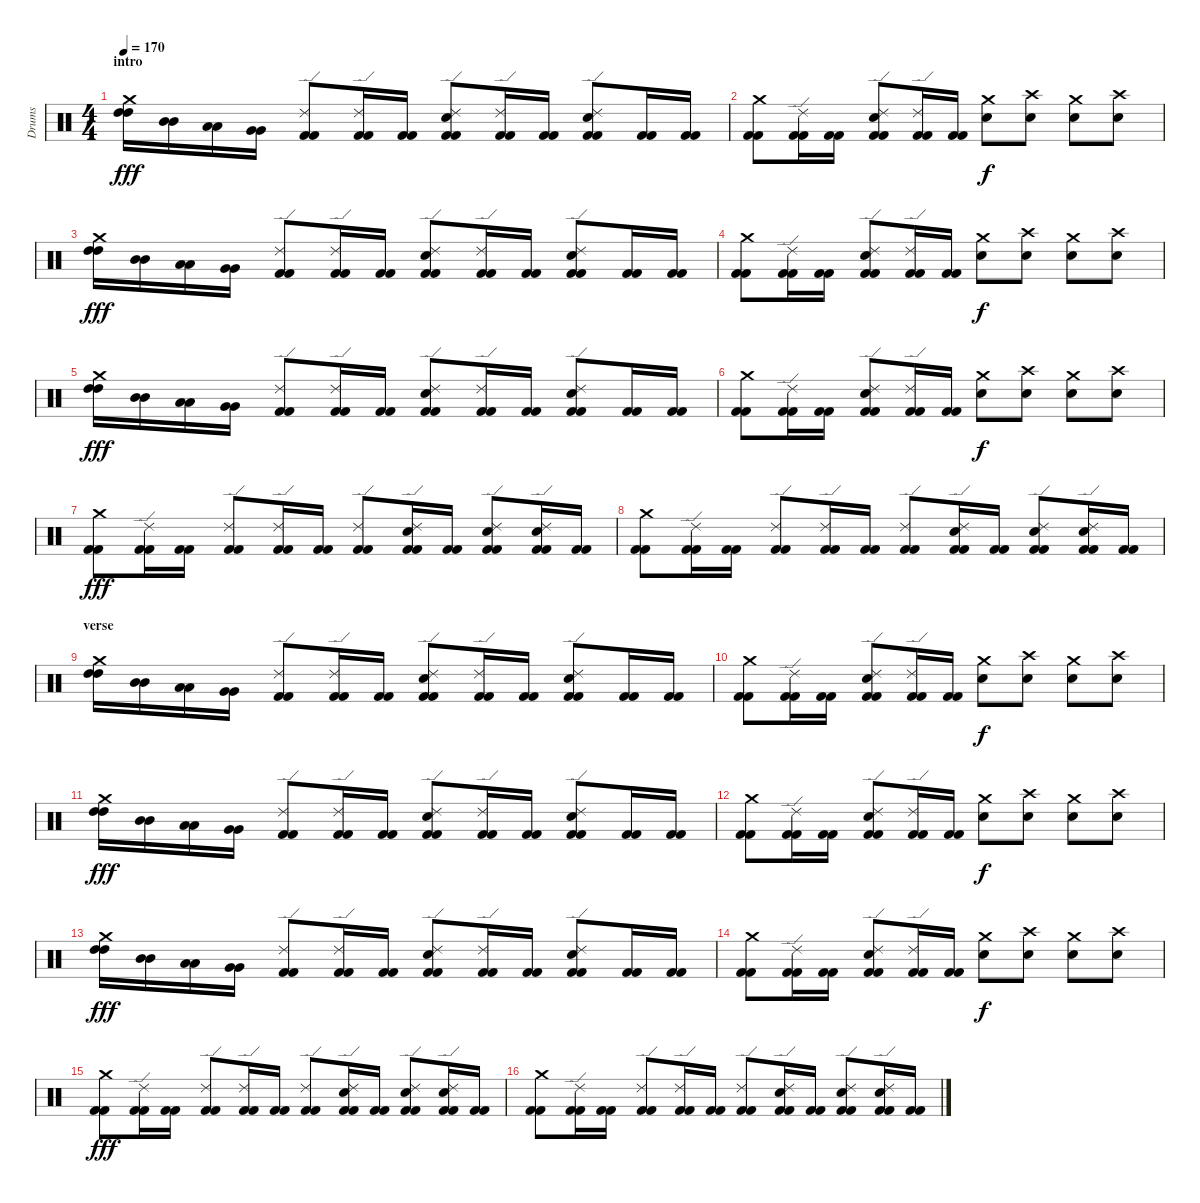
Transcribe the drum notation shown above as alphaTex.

\track ("Drums" "Drums") {instrument percussion}
\staff {score}
\articulation defaults
\ts (4 4)
\section ("" "intro")
\tempo 170
\clef neutral
\ks c
("High Tom (hit)" "High Tom (hit)" "Crash medium (hit)").16{dy fff} ("Mid Tom (hit)" "Mid Tom (hit)").16 ("Low Tom (hit)" "Low Tom (hit)").16 ("Very Low Tom (hit)" "Very Low Tom (hit)").16 ("Ride (edge) 2" "Kick (hit) 2" "Kick (hit) 2").8 ("Ride (edge) 2" "Kick (hit) 2" "Kick (hit) 2").16 ("Kick (hit) 2" "Kick (hit) 2").16 ("Ride (edge) 2" "Electric Snare (hit)" "Kick (hit) 2" "Kick (hit) 2").8 ("Ride (edge) 2" "Kick (hit) 2" "Kick (hit) 2").16 ("Kick (hit) 2" "Kick (hit) 2").16 ("Ride (edge) 2" "Electric Snare (hit)" "Kick (hit) 2" "Kick (hit) 2").8 ("Kick (hit) 2" "Kick (hit) 2").16 ("Kick (hit) 2" "Kick (hit) 2").16 |
("Crash medium (hit)" "Kick (hit) 2" "Kick (hit) 2").8 ("Ride (edge) 2" "Kick (hit) 2" "Kick (hit) 2").16 ("Kick (hit) 2" "Kick (hit) 2").16 ("Ride (edge) 2" "Electric Snare (hit)" "Kick (hit) 2" "Kick (hit) 2").8 ("Ride (edge) 2" "Kick (hit) 2" "Kick (hit) 2").16 ("Kick (hit) 2" "Kick (hit) 2").16 ("Electric Snare (hit)" "Crash medium (hit)").8{dy f} ("Crash high (hit)" "Electric Snare (hit)").8 ("Electric Snare (hit)" "Crash medium (hit)").8 ("Crash high (hit)" "Electric Snare (hit)").8 |
("High Tom (hit)" "High Tom (hit)" "Crash medium (hit)").16{dy fff} ("Mid Tom (hit)" "Mid Tom (hit)").16 ("Low Tom (hit)" "Low Tom (hit)").16 ("Very Low Tom (hit)" "Very Low Tom (hit)").16 ("Ride (edge) 2" "Kick (hit) 2" "Kick (hit) 2").8 ("Ride (edge) 2" "Kick (hit) 2" "Kick (hit) 2").16 ("Kick (hit) 2" "Kick (hit) 2").16 ("Ride (edge) 2" "Electric Snare (hit)" "Kick (hit) 2" "Kick (hit) 2").8 ("Ride (edge) 2" "Kick (hit) 2" "Kick (hit) 2").16 ("Kick (hit) 2" "Kick (hit) 2").16 ("Ride (edge) 2" "Electric Snare (hit)" "Kick (hit) 2" "Kick (hit) 2").8 ("Kick (hit) 2" "Kick (hit) 2").16 ("Kick (hit) 2" "Kick (hit) 2").16 |
("Crash medium (hit)" "Kick (hit) 2" "Kick (hit) 2").8 ("Ride (edge) 2" "Kick (hit) 2" "Kick (hit) 2").16 ("Kick (hit) 2" "Kick (hit) 2").16 ("Ride (edge) 2" "Electric Snare (hit)" "Kick (hit) 2" "Kick (hit) 2").8 ("Ride (edge) 2" "Kick (hit) 2" "Kick (hit) 2").16 ("Kick (hit) 2" "Kick (hit) 2").16 ("Electric Snare (hit)" "Crash medium (hit)").8{dy f} ("Crash high (hit)" "Electric Snare (hit)").8 ("Electric Snare (hit)" "Crash medium (hit)").8 ("Crash high (hit)" "Electric Snare (hit)").8 |
("High Tom (hit)" "High Tom (hit)" "Crash medium (hit)").16{dy fff} ("Mid Tom (hit)" "Mid Tom (hit)").16 ("Low Tom (hit)" "Low Tom (hit)").16 ("Very Low Tom (hit)" "Very Low Tom (hit)").16 ("Ride (edge) 2" "Kick (hit) 2" "Kick (hit) 2").8 ("Ride (edge) 2" "Kick (hit) 2" "Kick (hit) 2").16 ("Kick (hit) 2" "Kick (hit) 2").16 ("Ride (edge) 2" "Electric Snare (hit)" "Kick (hit) 2" "Kick (hit) 2").8 ("Ride (edge) 2" "Kick (hit) 2" "Kick (hit) 2").16 ("Kick (hit) 2" "Kick (hit) 2").16 ("Ride (edge) 2" "Electric Snare (hit)" "Kick (hit) 2" "Kick (hit) 2").8 ("Kick (hit) 2" "Kick (hit) 2").16 ("Kick (hit) 2" "Kick (hit) 2").16 |
("Crash medium (hit)" "Kick (hit) 2" "Kick (hit) 2").8 ("Ride (edge) 2" "Kick (hit) 2" "Kick (hit) 2").16 ("Kick (hit) 2" "Kick (hit) 2").16 ("Ride (edge) 2" "Electric Snare (hit)" "Kick (hit) 2" "Kick (hit) 2").8 ("Ride (edge) 2" "Kick (hit) 2" "Kick (hit) 2").16 ("Kick (hit) 2" "Kick (hit) 2").16 ("Electric Snare (hit)" "Crash medium (hit)").8{dy f} ("Crash high (hit)" "Electric Snare (hit)").8 ("Electric Snare (hit)" "Crash medium (hit)").8 ("Crash high (hit)" "Electric Snare (hit)").8 |
("Crash medium (hit)" "Kick (hit) 2" "Kick (hit) 2").8{dy fff} ("Ride (edge) 2" "Kick (hit) 2" "Kick (hit) 2").16 ("Kick (hit) 2" "Kick (hit) 2").16 ("Ride (edge) 2" "Kick (hit) 2" "Kick (hit) 2").8 ("Ride (edge) 2" "Kick (hit) 2" "Kick (hit) 2").16 ("Kick (hit) 2" "Kick (hit) 2").16 ("Ride (edge) 2" "Kick (hit) 2" "Kick (hit) 2").8 ("Ride (edge) 2" "Electric Snare (hit)" "Kick (hit) 2" "Kick (hit) 2").16 ("Kick (hit) 2" "Kick (hit) 2").16 ("Ride (edge) 2" "Electric Snare (hit)" "Kick (hit) 2" "Kick (hit) 2").8 ("Ride (edge) 2" "Electric Snare (hit)" "Kick (hit) 2" "Kick (hit) 2").16 ("Kick (hit) 2" "Kick (hit) 2").16 |
("Crash medium (hit)" "Kick (hit) 2" "Kick (hit) 2").8 ("Ride (edge) 2" "Kick (hit) 2" "Kick (hit) 2").16 ("Kick (hit) 2" "Kick (hit) 2").16 ("Ride (edge) 2" "Kick (hit) 2" "Kick (hit) 2").8 ("Ride (edge) 2" "Kick (hit) 2" "Kick (hit) 2").16 ("Kick (hit) 2" "Kick (hit) 2").16 ("Ride (edge) 2" "Kick (hit) 2" "Kick (hit) 2").8 ("Ride (edge) 2" "Electric Snare (hit)" "Kick (hit) 2" "Kick (hit) 2").16 ("Kick (hit) 2" "Kick (hit) 2").16 ("Ride (edge) 2" "Electric Snare (hit)" "Kick (hit) 2" "Kick (hit) 2").8 ("Ride (edge) 2" "Electric Snare (hit)" "Kick (hit) 2" "Kick (hit) 2").16 ("Kick (hit) 2" "Kick (hit) 2").16 |
\section ("" "verse")
("High Tom (hit)" "High Tom (hit)" "Crash medium (hit)").16 ("Mid Tom (hit)" "Mid Tom (hit)").16 ("Low Tom (hit)" "Low Tom (hit)").16 ("Very Low Tom (hit)" "Very Low Tom (hit)").16 ("Ride (edge) 2" "Kick (hit) 2" "Kick (hit) 2").8 ("Ride (edge) 2" "Kick (hit) 2" "Kick (hit) 2").16 ("Kick (hit) 2" "Kick (hit) 2").16 ("Ride (edge) 2" "Electric Snare (hit)" "Kick (hit) 2" "Kick (hit) 2").8 ("Ride (edge) 2" "Kick (hit) 2" "Kick (hit) 2").16 ("Kick (hit) 2" "Kick (hit) 2").16 ("Ride (edge) 2" "Electric Snare (hit)" "Kick (hit) 2" "Kick (hit) 2").8 ("Kick (hit) 2" "Kick (hit) 2").16 ("Kick (hit) 2" "Kick (hit) 2").16 |
("Crash medium (hit)" "Kick (hit) 2" "Kick (hit) 2").8 ("Ride (edge) 2" "Kick (hit) 2" "Kick (hit) 2").16 ("Kick (hit) 2" "Kick (hit) 2").16 ("Ride (edge) 2" "Electric Snare (hit)" "Kick (hit) 2" "Kick (hit) 2").8 ("Ride (edge) 2" "Kick (hit) 2" "Kick (hit) 2").16 ("Kick (hit) 2" "Kick (hit) 2").16 ("Electric Snare (hit)" "Crash medium (hit)").8{dy f} ("Crash high (hit)" "Electric Snare (hit)").8 ("Electric Snare (hit)" "Crash medium (hit)").8 ("Crash high (hit)" "Electric Snare (hit)").8 |
("High Tom (hit)" "High Tom (hit)" "Crash medium (hit)").16{dy fff} ("Mid Tom (hit)" "Mid Tom (hit)").16 ("Low Tom (hit)" "Low Tom (hit)").16 ("Very Low Tom (hit)" "Very Low Tom (hit)").16 ("Ride (edge) 2" "Kick (hit) 2" "Kick (hit) 2").8 ("Ride (edge) 2" "Kick (hit) 2" "Kick (hit) 2").16 ("Kick (hit) 2" "Kick (hit) 2").16 ("Ride (edge) 2" "Electric Snare (hit)" "Kick (hit) 2" "Kick (hit) 2").8 ("Ride (edge) 2" "Kick (hit) 2" "Kick (hit) 2").16 ("Kick (hit) 2" "Kick (hit) 2").16 ("Ride (edge) 2" "Electric Snare (hit)" "Kick (hit) 2" "Kick (hit) 2").8 ("Kick (hit) 2" "Kick (hit) 2").16 ("Kick (hit) 2" "Kick (hit) 2").16 |
("Crash medium (hit)" "Kick (hit) 2" "Kick (hit) 2").8 ("Ride (edge) 2" "Kick (hit) 2" "Kick (hit) 2").16 ("Kick (hit) 2" "Kick (hit) 2").16 ("Ride (edge) 2" "Electric Snare (hit)" "Kick (hit) 2" "Kick (hit) 2").8 ("Ride (edge) 2" "Kick (hit) 2" "Kick (hit) 2").16 ("Kick (hit) 2" "Kick (hit) 2").16 ("Electric Snare (hit)" "Crash medium (hit)").8{dy f} ("Crash high (hit)" "Electric Snare (hit)").8 ("Electric Snare (hit)" "Crash medium (hit)").8 ("Crash high (hit)" "Electric Snare (hit)").8 |
("High Tom (hit)" "High Tom (hit)" "Crash medium (hit)").16{dy fff} ("Mid Tom (hit)" "Mid Tom (hit)").16 ("Low Tom (hit)" "Low Tom (hit)").16 ("Very Low Tom (hit)" "Very Low Tom (hit)").16 ("Ride (edge) 2" "Kick (hit) 2" "Kick (hit) 2").8 ("Ride (edge) 2" "Kick (hit) 2" "Kick (hit) 2").16 ("Kick (hit) 2" "Kick (hit) 2").16 ("Ride (edge) 2" "Electric Snare (hit)" "Kick (hit) 2" "Kick (hit) 2").8 ("Ride (edge) 2" "Kick (hit) 2" "Kick (hit) 2").16 ("Kick (hit) 2" "Kick (hit) 2").16 ("Ride (edge) 2" "Electric Snare (hit)" "Kick (hit) 2" "Kick (hit) 2").8 ("Kick (hit) 2" "Kick (hit) 2").16 ("Kick (hit) 2" "Kick (hit) 2").16 |
("Crash medium (hit)" "Kick (hit) 2" "Kick (hit) 2").8 ("Ride (edge) 2" "Kick (hit) 2" "Kick (hit) 2").16 ("Kick (hit) 2" "Kick (hit) 2").16 ("Ride (edge) 2" "Electric Snare (hit)" "Kick (hit) 2" "Kick (hit) 2").8 ("Ride (edge) 2" "Kick (hit) 2" "Kick (hit) 2").16 ("Kick (hit) 2" "Kick (hit) 2").16 ("Electric Snare (hit)" "Crash medium (hit)").8{dy f} ("Crash high (hit)" "Electric Snare (hit)").8 ("Electric Snare (hit)" "Crash medium (hit)").8 ("Crash high (hit)" "Electric Snare (hit)").8 |
("Crash medium (hit)" "Kick (hit) 2" "Kick (hit) 2").8{dy fff} ("Ride (edge) 2" "Kick (hit) 2" "Kick (hit) 2").16 ("Kick (hit) 2" "Kick (hit) 2").16 ("Ride (edge) 2" "Kick (hit) 2" "Kick (hit) 2").8 ("Ride (edge) 2" "Kick (hit) 2" "Kick (hit) 2").16 ("Kick (hit) 2" "Kick (hit) 2").16 ("Ride (edge) 2" "Kick (hit) 2" "Kick (hit) 2").8 ("Ride (edge) 2" "Electric Snare (hit)" "Kick (hit) 2" "Kick (hit) 2").16 ("Kick (hit) 2" "Kick (hit) 2").16 ("Ride (edge) 2" "Electric Snare (hit)" "Kick (hit) 2" "Kick (hit) 2").8 ("Ride (edge) 2" "Electric Snare (hit)" "Kick (hit) 2" "Kick (hit) 2").16 ("Kick (hit) 2" "Kick (hit) 2").16 |
("Crash medium (hit)" "Kick (hit) 2" "Kick (hit) 2").8 ("Ride (edge) 2" "Kick (hit) 2" "Kick (hit) 2").16 ("Kick (hit) 2" "Kick (hit) 2").16 ("Ride (edge) 2" "Kick (hit) 2" "Kick (hit) 2").8 ("Ride (edge) 2" "Kick (hit) 2" "Kick (hit) 2").16 ("Kick (hit) 2" "Kick (hit) 2").16 ("Ride (edge) 2" "Kick (hit) 2" "Kick (hit) 2").8 ("Ride (edge) 2" "Electric Snare (hit)" "Kick (hit) 2" "Kick (hit) 2").16 ("Kick (hit) 2" "Kick (hit) 2").16 ("Ride (edge) 2" "Electric Snare (hit)" "Kick (hit) 2" "Kick (hit) 2").8 ("Ride (edge) 2" "Electric Snare (hit)" "Kick (hit) 2" "Kick (hit) 2").16 ("Kick (hit) 2" "Kick (hit) 2").16
